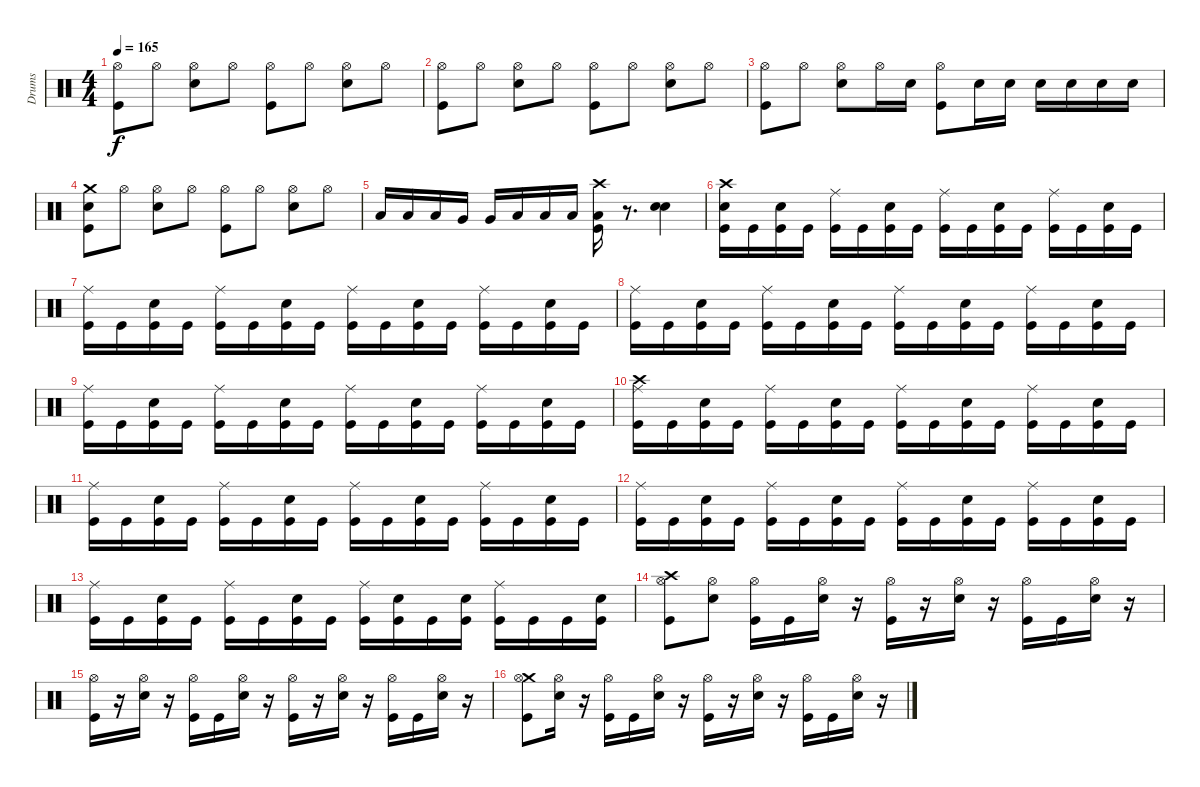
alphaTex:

\track ("Drums" "Drums") {instrument percussion}
\staff {score}
\articulation defaults
\ts (4 4)
\tempo 165
\clef neutral
\ks c
("Hi-Hat (open)" "Kick (hit)").8{dy f} "Hi-Hat (open)".8 ("Hi-Hat (open)" "Electric Snare (hit)").8 "Hi-Hat (open)".8 ("Hi-Hat (open)" "Kick (hit)").8 "Hi-Hat (open)".8 ("Hi-Hat (open)" "Electric Snare (hit)").8 "Hi-Hat (open)".8 |
("Hi-Hat (open)" "Kick (hit)").8 "Hi-Hat (open)".8 ("Hi-Hat (open)" "Electric Snare (hit)").8 "Hi-Hat (open)".8 ("Hi-Hat (open)" "Kick (hit)").8 "Hi-Hat (open)".8 ("Hi-Hat (open)" "Electric Snare (hit)").8 "Hi-Hat (open)".8 |
("Hi-Hat (open)" "Kick (hit)").8 "Hi-Hat (open)".8 ("Hi-Hat (open)" "Electric Snare (hit)").8 "Hi-Hat (open)".16 "Electric Snare (hit)".16 ("Hi-Hat (open)" "Kick (hit)").8 "Electric Snare (hit)".16 "Electric Snare (hit)".16 "Electric Snare (hit)".16 "Electric Snare (hit)".16 "Electric Snare (hit)".16 "Electric Snare (hit)".16 |
("Electric Snare (hit)" "Crash medium (hit)" "Kick (hit)").8 "Hi-Hat (open)".8 ("Hi-Hat (open)" "Electric Snare (hit)").8 "Hi-Hat (open)".8 ("Hi-Hat (open)" "Kick (hit)").8 "Hi-Hat (open)".8 ("Hi-Hat (open)" "Electric Snare (hit)").8 "Hi-Hat (open)".8 |
"Low Tom (hit)".16 "Low Tom (hit)".16 "Low Tom (hit)".16 "Very Low Tom (hit)".16 "Very Low Tom (hit)".16 "Low Tom (hit)".16 "Low Tom (hit)".16 "Low Tom (hit)".16 ("Kick (hit)" "Crash high (hit)" "Low Tom (hit)").16 r.8{d} ("Electric Snare (hit)" "Electric Snare (hit)").4 |
("Kick (hit)" "Crash high (hit)" "Electric Snare (hit)").16{volume 14 balance 8} "Kick (hit)".16 ("Electric Snare (hit)" "Kick (hit)").16 "Kick (hit)".16 ("Kick (hit)" "Ride (middle)").16 "Kick (hit)".16 ("Kick (hit)" "Electric Snare (hit)").16 "Kick (hit)".16 ("Ride (middle)" "Kick (hit)").16 "Kick (hit)".16 ("Kick (hit)" "Electric Snare (hit)").16 "Kick (hit)".16 ("Ride (middle)" "Kick (hit)").16 "Kick (hit)".16 ("Kick (hit)" "Electric Snare (hit)").16 "Kick (hit)".16 |
("Ride (middle)" "Kick (hit)").16 "Kick (hit)".16 ("Kick (hit)" "Electric Snare (hit)").16 "Kick (hit)".16 ("Ride (middle)" "Kick (hit)").16 "Kick (hit)".16 ("Kick (hit)" "Electric Snare (hit)").16 "Kick (hit)".16 ("Ride (middle)" "Kick (hit)").16 "Kick (hit)".16 ("Kick (hit)" "Electric Snare (hit)").16 "Kick (hit)".16 ("Ride (middle)" "Kick (hit)").16 "Kick (hit)".16 ("Kick (hit)" "Electric Snare (hit)").16 "Kick (hit)".16 |
("Ride (middle)" "Kick (hit)").16 "Kick (hit)".16 ("Kick (hit)" "Electric Snare (hit)").16 "Kick (hit)".16 ("Ride (middle)" "Kick (hit)").16 "Kick (hit)".16 ("Kick (hit)" "Electric Snare (hit)").16 "Kick (hit)".16 ("Ride (middle)" "Kick (hit)").16 "Kick (hit)".16 ("Kick (hit)" "Electric Snare (hit)").16 "Kick (hit)".16 ("Ride (middle)" "Kick (hit)").16 "Kick (hit)".16 ("Kick (hit)" "Electric Snare (hit)").16 "Kick (hit)".16 |
("Ride (middle)" "Kick (hit)").16 "Kick (hit)".16 ("Kick (hit)" "Electric Snare (hit)").16 "Kick (hit)".16 ("Ride (middle)" "Kick (hit)").16 "Kick (hit)".16 ("Kick (hit)" "Electric Snare (hit)").16 "Kick (hit)".16 ("Ride (middle)" "Kick (hit)").16 "Kick (hit)".16 ("Kick (hit)" "Electric Snare (hit)").16 "Kick (hit)".16 ("Ride (middle)" "Kick (hit)").16 "Kick (hit)".16 ("Kick (hit)" "Electric Snare (hit)").16 "Kick (hit)".16 |
("Crash high (hit)" "Ride (middle)" "Kick (hit)").16{volume 14 balance 8} "Kick (hit)".16 ("Kick (hit)" "Electric Snare (hit)").16 "Kick (hit)".16 ("Ride (middle)" "Kick (hit)").16 "Kick (hit)".16 ("Kick (hit)" "Electric Snare (hit)").16 "Kick (hit)".16 ("Ride (middle)" "Kick (hit)").16 "Kick (hit)".16 ("Kick (hit)" "Electric Snare (hit)").16 "Kick (hit)".16 ("Ride (middle)" "Kick (hit)").16 "Kick (hit)".16 ("Kick (hit)" "Electric Snare (hit)").16 "Kick (hit)".16 |
("Ride (middle)" "Kick (hit)").16 "Kick (hit)".16 ("Kick (hit)" "Electric Snare (hit)").16 "Kick (hit)".16 ("Ride (middle)" "Kick (hit)").16 "Kick (hit)".16 ("Kick (hit)" "Electric Snare (hit)").16 "Kick (hit)".16 ("Ride (middle)" "Kick (hit)").16 "Kick (hit)".16 ("Kick (hit)" "Electric Snare (hit)").16 "Kick (hit)".16 ("Ride (middle)" "Kick (hit)").16 "Kick (hit)".16 ("Kick (hit)" "Electric Snare (hit)").16 "Kick (hit)".16 |
("Ride (middle)" "Kick (hit)").16 "Kick (hit)".16 ("Kick (hit)" "Electric Snare (hit)").16 "Kick (hit)".16 ("Ride (middle)" "Kick (hit)").16 "Kick (hit)".16 ("Kick (hit)" "Electric Snare (hit)").16 "Kick (hit)".16 ("Ride (middle)" "Kick (hit)").16 "Kick (hit)".16 ("Kick (hit)" "Electric Snare (hit)").16 "Kick (hit)".16 ("Ride (middle)" "Kick (hit)").16 "Kick (hit)".16 ("Kick (hit)" "Electric Snare (hit)").16 "Kick (hit)".16 |
("Ride (middle)" "Kick (hit)").16 "Kick (hit)".16 ("Kick (hit)" "Electric Snare (hit)").16 "Kick (hit)".16 ("Ride (middle)" "Kick (hit)").16 "Kick (hit)".16 ("Electric Snare (hit)" "Kick (hit)").16 "Kick (hit)".16 ("Ride (middle)" "Kick (hit)").16 ("Snare (hit) 2" "Kick (hit)").16 "Kick (hit)".16 ("Electric Snare (hit)" "Kick (hit)").16 ("Ride (middle)" "Kick (hit)").16 "Kick (hit)".16 "Kick (hit)".16 ("Electric Snare (hit)" "Kick (hit)").16 |
("Crash high (hit)" "Hi-Hat (open)" "Kick (hit)").8{volume 14 balance 8} ("Electric Snare (hit)" "Hi-Hat (open)").8 ("Kick (hit)" "Hi-Hat (open)").16 "Kick (hit)".16 ("Electric Snare (hit)" "Hi-Hat (open)").16 r.16 ("Kick (hit)" "Hi-Hat (open)").16 r.16 ("Electric Snare (hit)" "Hi-Hat (open)").16 r.16 ("Kick (hit)" "Hi-Hat (open)").16 "Kick (hit)".16 ("Electric Snare (hit)" "Hi-Hat (open)").16 r.16 |
("Hi-Hat (open)" "Kick (hit)").16{volume 14 balance 8} r.16 ("Electric Snare (hit)" "Hi-Hat (open)").16 r.16 ("Kick (hit)" "Hi-Hat (open)").16 "Kick (hit)".16 ("Electric Snare (hit)" "Hi-Hat (open)").16 r.16 ("Kick (hit)" "Hi-Hat (open)").16 r.16 ("Electric Snare (hit)" "Hi-Hat (open)").16 r.16 ("Kick (hit)" "Hi-Hat (open)").16 "Kick (hit)".16 ("Electric Snare (hit)" "Hi-Hat (open)").16 r.16 |
("Crash medium (hit)" "Hi-Hat (open)" "Kick (hit)").8 ("Electric Snare (hit)" "Hi-Hat (open)").16 r.16 ("Kick (hit)" "Hi-Hat (open)").16 "Kick (hit)".16 ("Electric Snare (hit)" "Hi-Hat (open)").16 r.16 ("Kick (hit)" "Hi-Hat (open)").16 r.16 ("Electric Snare (hit)" "Hi-Hat (open)").16 r.16 ("Kick (hit)" "Hi-Hat (open)").16 "Kick (hit)".16 ("Electric Snare (hit)" "Hi-Hat (open)").16 r.16
